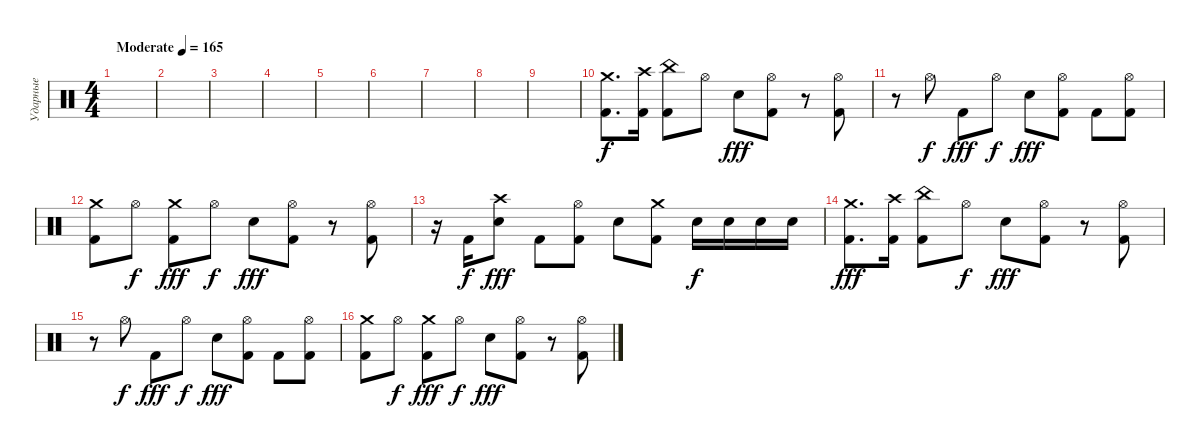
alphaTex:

\track ("Ударные" "Ударные") {instrument percussion}
\staff {score}
\articulation defaults
\ts (4 4)
\tempo (165 "Moderate")
\clef neutral
\ks c
|
|
|
|
|
|
|
|
|
("Crash medium (hit)" "Kick (hit) 2").8{d} ("Crash high (hit)" "Kick (hit) 2").16 ("China (hit)" "Kick (hit) 2").8 "Hi-Hat (open)".8{dy f} "Electric Snare (hit)".8{dy fff} ("Hi-Hat (open)" "Kick (hit) 2").8 r.8 ("Hi-Hat (open)" "Kick (hit) 2").8 |
r.8 "Hi-Hat (open)".8{dy f} "Kick (hit) 2".8{dy fff} "Hi-Hat (open)".8{dy f} "Electric Snare (hit)".8{dy fff} ("Hi-Hat (open)" "Kick (hit) 2").8 "Kick (hit) 2".8 ("Hi-Hat (open)" "Kick (hit) 2").8 |
("Crash medium (hit)" "Kick (hit) 2").8 "Hi-Hat (open)".8{dy f} ("Crash medium (hit)" "Kick (hit) 2").8{dy fff} "Hi-Hat (open)".8{dy f} "Electric Snare (hit)".8{dy fff} ("Hi-Hat (open)" "Kick (hit) 2").8 r.8 ("Hi-Hat (open)" "Kick (hit) 2").8 |
r.16 "Kick (hit) 2".16{dy f} ("Crash high (hit)" "Electric Snare (hit)").8{dy fff} "Kick (hit) 2".8 ("Hi-Hat (open)" "Kick (hit) 2").8 "Electric Snare (hit)".8 ("Crash medium (hit)" "Kick (hit) 2").8 "Electric Snare (hit)".16{dy f} "Electric Snare (hit)".16 "Electric Snare (hit)".16 "Electric Snare (hit)".16 |
("Crash medium (hit)" "Kick (hit) 2").8{d dy fff} ("Crash high (hit)" "Kick (hit) 2").16 ("China (hit)" "Kick (hit) 2").8 "Hi-Hat (open)".8{dy f} "Electric Snare (hit)".8{dy fff} ("Hi-Hat (open)" "Kick (hit) 2").8 r.8 ("Hi-Hat (open)" "Kick (hit) 2").8 |
r.8 "Hi-Hat (open)".8{dy f} "Kick (hit) 2".8{dy fff} "Hi-Hat (open)".8{dy f} "Electric Snare (hit)".8{dy fff} ("Hi-Hat (open)" "Kick (hit) 2").8 "Kick (hit) 2".8 ("Hi-Hat (open)" "Kick (hit) 2").8 |
("Crash medium (hit)" "Kick (hit) 2").8 "Hi-Hat (open)".8{dy f} ("Crash medium (hit)" "Kick (hit) 2").8{dy fff} "Hi-Hat (open)".8{dy f} "Electric Snare (hit)".8{dy fff} ("Hi-Hat (open)" "Kick (hit) 2").8 r.8 ("Hi-Hat (open)" "Kick (hit) 2").8
